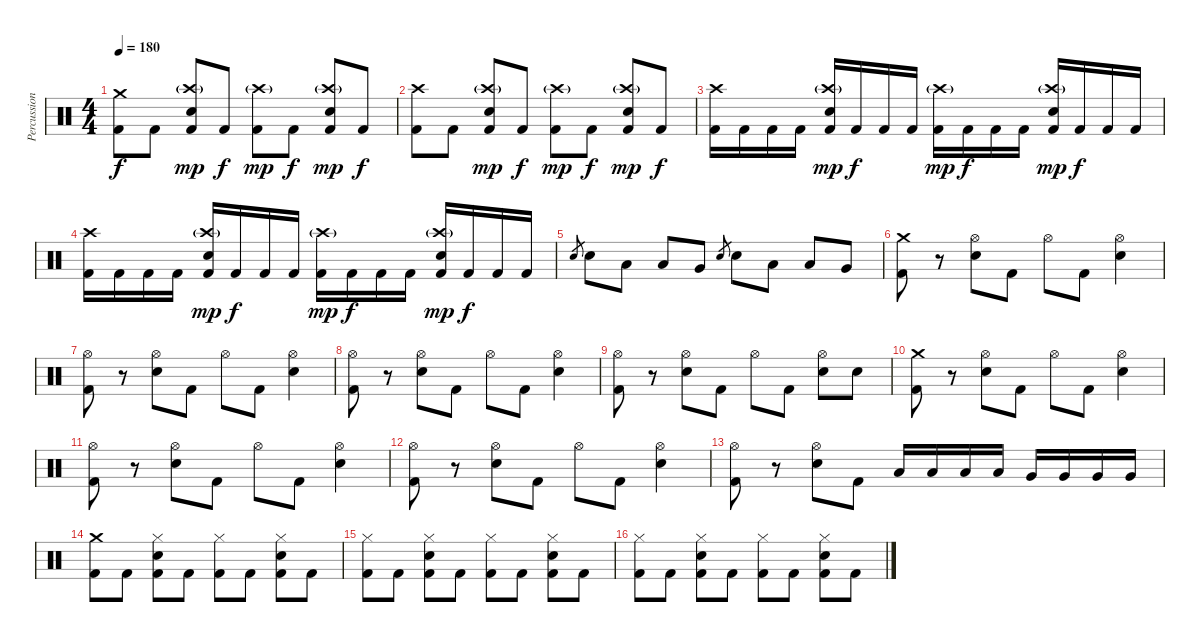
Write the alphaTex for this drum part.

\track ("Percussioni" "Percussion") {instrument percussion}
\staff {score}
\articulation defaults
\ts (4 4)
\tempo 180
\clef neutral
\ks c
("Crash medium (hit)" "Kick (hit) 2").8{dy f} "Kick (hit) 2".8 ("Crash high (hit)"{g} "Electric Snare (hit)" "Kick (hit) 2").8{dy mp} "Kick (hit) 2".8{dy f} ("Crash high (hit)"{g} "Kick (hit) 2").8{dy mp} "Kick (hit) 2".8{dy f} ("Crash high (hit)"{g} "Electric Snare (hit)" "Kick (hit) 2").8{dy mp} "Kick (hit) 2".8{dy f} |
("Crash high (hit)" "Kick (hit) 2").8 "Kick (hit) 2".8 ("Crash high (hit)"{g} "Electric Snare (hit)" "Kick (hit) 2").8{dy mp} "Kick (hit) 2".8{dy f} ("Crash high (hit)"{g} "Kick (hit) 2").8{dy mp} "Kick (hit) 2".8{dy f} ("Crash high (hit)"{g} "Electric Snare (hit)" "Kick (hit) 2").8{dy mp} "Kick (hit) 2".8{dy f} |
("Crash high (hit)" "Kick (hit) 2").16 "Kick (hit) 2".16 "Kick (hit) 2".16 "Kick (hit) 2".16 ("Crash high (hit)"{g} "Electric Snare (hit)" "Kick (hit) 2").16{dy mp} "Kick (hit) 2".16{dy f} "Kick (hit) 2".16 "Kick (hit) 2".16 ("Crash high (hit)"{g} "Kick (hit) 2").16{dy mp} "Kick (hit) 2".16{dy f} "Kick (hit) 2".16 "Kick (hit) 2".16 ("Crash high (hit)"{g} "Electric Snare (hit)" "Kick (hit) 2").16{dy mp} "Kick (hit) 2".16{dy f} "Kick (hit) 2".16 "Kick (hit) 2".16 |
("Crash high (hit)" "Kick (hit) 2").16 "Kick (hit) 2".16 "Kick (hit) 2".16 "Kick (hit) 2".16 ("Crash high (hit)"{g} "Electric Snare (hit)" "Kick (hit) 2").16{dy mp} "Kick (hit) 2".16{dy f} "Kick (hit) 2".16 "Kick (hit) 2".16 ("Crash high (hit)"{g} "Kick (hit) 2").16{dy mp} "Kick (hit) 2".16{dy f} "Kick (hit) 2".16 "Kick (hit) 2".16 ("Crash high (hit)"{g} "Electric Snare (hit)" "Kick (hit) 2").16{dy mp} "Kick (hit) 2".16{dy f} "Kick (hit) 2".16 "Kick (hit) 2".16 |
"Electric Snare (hit)".8{gr} "Electric Snare (hit)".8 "Low Tom (hit)".8 "Low Tom (hit)".8 "Very Low Tom (hit)".8 "Electric Snare (hit)".8{gr} "Electric Snare (hit)".8 "Low Tom (hit)".8 "Low Tom (hit)".8 "Very Low Tom (hit)".8 |
("Crash medium (hit)" "Kick (hit) 2").8 r.8 ("Hi-Hat (open)" "Electric Snare (hit)").8 "Kick (hit) 2".8 "Hi-Hat (open)".8 "Kick (hit) 2".8 ("Hi-Hat (open)" "Electric Snare (hit)").4 |
("Hi-Hat (open)" "Kick (hit) 2").8 r.8 ("Hi-Hat (open)" "Electric Snare (hit)").8 "Kick (hit) 2".8 "Hi-Hat (open)".8 "Kick (hit) 2".8 ("Hi-Hat (open)" "Electric Snare (hit)").4 |
("Hi-Hat (open)" "Kick (hit) 2").8 r.8 ("Hi-Hat (open)" "Electric Snare (hit)").8 "Kick (hit) 2".8 "Hi-Hat (open)".8 "Kick (hit) 2".8 ("Hi-Hat (open)" "Electric Snare (hit)").4 |
("Hi-Hat (open)" "Kick (hit) 2").8 r.8 ("Hi-Hat (open)" "Electric Snare (hit)").8 "Kick (hit) 2".8 "Hi-Hat (open)".8 "Kick (hit) 2".8 ("Hi-Hat (open)" "Electric Snare (hit)").8 "Electric Snare (hit)".8 |
("Crash medium (hit)" "Kick (hit) 2").8 r.8 ("Hi-Hat (open)" "Electric Snare (hit)").8 "Kick (hit) 2".8 "Hi-Hat (open)".8 "Kick (hit) 2".8 ("Hi-Hat (open)" "Electric Snare (hit)").4 |
("Hi-Hat (open)" "Kick (hit) 2").8 r.8 ("Hi-Hat (open)" "Electric Snare (hit)").8 "Kick (hit) 2".8 "Hi-Hat (open)".8 "Kick (hit) 2".8 ("Hi-Hat (open)" "Electric Snare (hit)").4 |
("Hi-Hat (open)" "Kick (hit) 2").8 r.8 ("Hi-Hat (open)" "Electric Snare (hit)").8 "Kick (hit) 2".8 "Hi-Hat (open)".8 "Kick (hit) 2".8 ("Hi-Hat (open)" "Electric Snare (hit)").4 |
("Hi-Hat (open)" "Kick (hit) 2").8 r.8 ("Hi-Hat (open)" "Electric Snare (hit)").8 "Kick (hit) 2".8 "Low Tom (hit)".16 "Low Tom (hit)".16 "Low Tom (hit)".16 "Low Tom (hit)".16 "Very Low Tom (hit)".16 "Very Low Tom (hit)".16 "Very Low Tom (hit)".16 "Very Low Tom (hit)".16 |
("Crash medium (hit)" "Kick (hit) 2").8 "Kick (hit) 2".8 ("Hi-Hat (closed)" "Electric Snare (hit)" "Kick (hit) 2").8 "Kick (hit) 2".8 ("Hi-Hat (closed)" "Kick (hit) 2").8 "Kick (hit) 2".8 ("Hi-Hat (closed)" "Electric Snare (hit)" "Kick (hit) 2").8 "Kick (hit) 2".8 |
("Hi-Hat (closed)" "Kick (hit) 2").8 "Kick (hit) 2".8 ("Hi-Hat (closed)" "Electric Snare (hit)" "Kick (hit) 2").8 "Kick (hit) 2".8 ("Hi-Hat (closed)" "Kick (hit) 2").8 "Kick (hit) 2".8 ("Hi-Hat (closed)" "Electric Snare (hit)" "Kick (hit) 2").8 "Kick (hit) 2".8 |
("Hi-Hat (closed)" "Kick (hit) 2").8 "Kick (hit) 2".8 ("Hi-Hat (closed)" "Electric Snare (hit)" "Kick (hit) 2").8 "Kick (hit) 2".8 ("Hi-Hat (closed)" "Kick (hit) 2").8 "Kick (hit) 2".8 ("Hi-Hat (closed)" "Electric Snare (hit)" "Kick (hit) 2").8 "Kick (hit) 2".8
